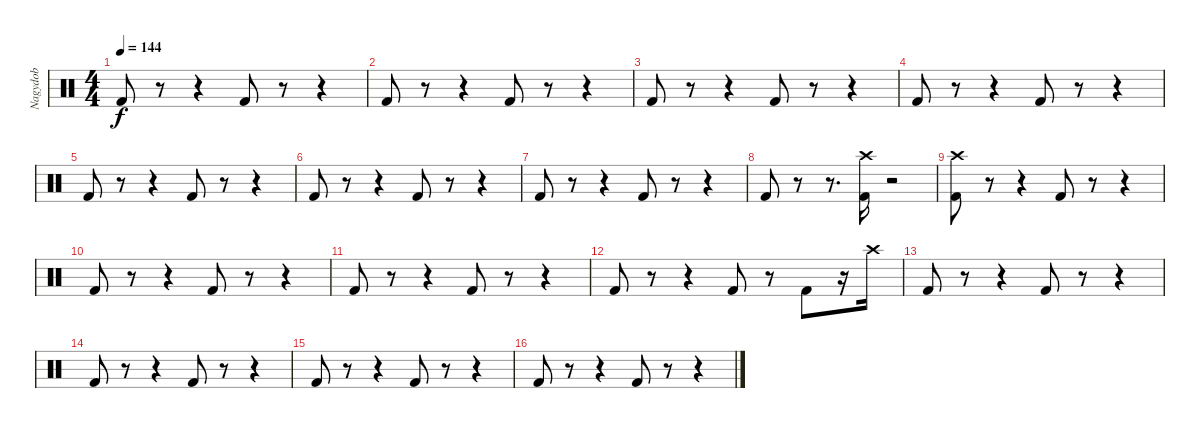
\track ("Nagydob" "Nagydob") {instrument percussion}
\staff {score}
\articulation defaults
\ts (4 4)
\tempo 144
\clef neutral
\ks c "Kick (hit) 2".8{dy f}
r.8 r.4 "Kick (hit) 2".8 r.8 r.4 |
"Kick (hit) 2".8 r.8 r.4 "Kick (hit) 2".8 r.8 r.4 |
"Kick (hit) 2".8 r.8 r.4 "Kick (hit) 2".8 r.8 r.4 |
"Kick (hit) 2".8 r.8 r.4 "Kick (hit) 2".8 r.8 r.4 |
"Kick (hit) 2".8 r.8 r.4 "Kick (hit) 2".8 r.8 r.4 |
"Kick (hit) 2".8 r.8 r.4 "Kick (hit) 2".8 r.8 r.4 |
"Kick (hit) 2".8 r.8 r.4 "Kick (hit) 2".8 r.8 r.4 |
"Kick (hit) 2".8 r.8 r.8{d} ("Kick (hit) 2" "Crash high (hit)").16 r.2 |
("Kick (hit) 2" "Crash high (hit)").8 r.8 r.4 "Kick (hit) 2".8 r.8 r.4 |
"Kick (hit) 2".8 r.8 r.4 "Kick (hit) 2".8 r.8 r.4 |
"Kick (hit) 2".8 r.8 r.4 "Kick (hit) 2".8 r.8 r.4 |
"Kick (hit) 2".8 r.8 r.4 "Kick (hit) 2".8 r.8 "Kick (hit) 2".8 r.16 "Crash high (hit)".16 |
"Kick (hit) 2".8 r.8 r.4 "Kick (hit) 2".8 r.8 r.4 |
"Kick (hit) 2".8 r.8 r.4 "Kick (hit) 2".8 r.8 r.4 |
"Kick (hit) 2".8 r.8 r.4 "Kick (hit) 2".8 r.8 r.4 |
"Kick (hit) 2".8 r.8 r.4 "Kick (hit) 2".8 r.8 r.4
